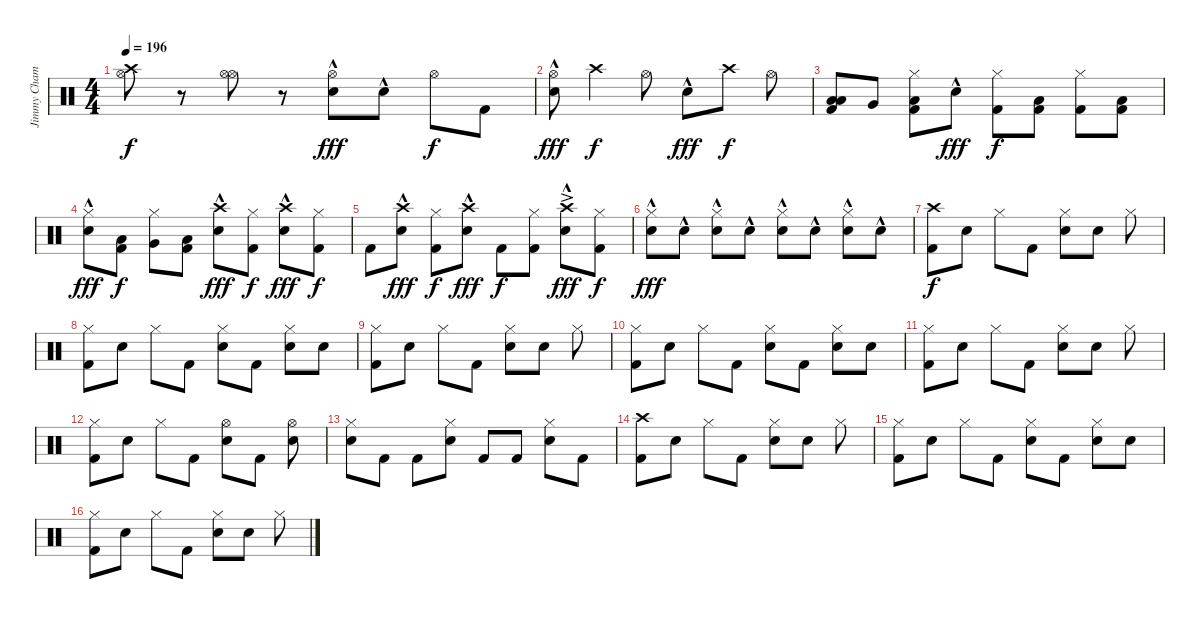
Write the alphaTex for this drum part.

\track ("Jimmy Chamberlin" "Jimmy Cham") {instrument percussion}
\staff {score}
\articulation defaults
\ts (4 4)
\tempo 196
\clef neutral
\ks c
("Crash high (hit)" "Hi-Hat (open)").8{dy f} r.8 ("Hi-Hat (open)" "Hi-Hat (open)").8 r.8 ("Hi-Hat (open)" "Electric Snare (hit)"{hac}).8{dy fff} "Electric Snare (hit)"{hac}.8 "Hi-Hat (open)".8{dy f} "Kick (hit) 2".8 |
("Hi-Hat (open)" "Electric Snare (hit)"{hac}).8{dy fff} "Crash high (hit)".4{dy f} "Hi-Hat (open)".8 "Electric Snare (hit)"{hac}.8{dy fff} "Crash high (hit)".8{dy f} "Hi-Hat (open)".8 |
("Low Tom (hit)" "Low Floor Tom (hit)" "Kick (hit) 2").8 "Very Low Tom (hit)".8 ("Hi-Hat (closed)" "Low Floor Tom (hit)" "Kick (hit) 2").8 "Electric Snare (hit)"{hac}.8{dy fff} ("Hi-Hat (closed)" "Kick (hit) 2").8{dy f} ("Low Floor Tom (hit)" "Kick (hit) 2").8 ("Hi-Hat (closed)" "Kick (hit) 2").8 ("Low Floor Tom (hit)" "Kick (hit) 2").8 |
("Hi-Hat (closed)" "Electric Snare (hit)"{hac}).8{dy fff} ("Low Tom (hit)" "Kick (hit) 2").8{dy f} ("Hi-Hat (closed)" "Very Low Tom (hit)").8 ("Low Floor Tom (hit)" "Kick (hit) 2").8 ("Crash high (hit)" "Electric Snare (hit)"{hac}).8{dy fff} ("Hi-Hat (closed)" "Kick (hit) 2").8{dy f} ("Crash high (hit)" "Electric Snare (hit)"{hac}).8{dy fff} ("Hi-Hat (closed)" "Kick (hit) 2").8{dy f} |
"Kick (hit) 2".8 ("Crash high (hit)" "Electric Snare (hit)"{hac}).8{dy fff} ("Hi-Hat (closed)" "Kick (hit) 2").8{dy f} ("Crash high (hit)" "Electric Snare (hit)"{hac}).8{dy fff} "Kick (hit) 2".8{dy f} ("Hi-Hat (closed)" "Kick (hit) 2").8 ("Crash high (hit)"{ac} "Electric Snare (hit)"{hac}).8{dy fff} ("Hi-Hat (closed)" "Kick (hit) 2").8{dy f} |
("Hi-Hat (closed)" "Electric Snare (hit)"{hac}).8{dy fff} "Electric Snare (hit)"{hac}.8 ("Hi-Hat (closed)" "Electric Snare (hit)"{hac}).8 "Electric Snare (hit)"{hac}.8 ("Hi-Hat (closed)" "Electric Snare (hit)"{hac}).8 "Electric Snare (hit)"{hac}.8 ("Hi-Hat (closed)" "Electric Snare (hit)"{hac}).8 "Electric Snare (hit)"{hac}.8 |
("Crash high (hit)" "Kick (hit) 2").8{dy f} "Electric Snare (hit)".8 "Hi-Hat (closed)".8 "Kick (hit) 2".8 ("Hi-Hat (closed)" "Electric Snare (hit)").8 "Electric Snare (hit)".8 "Hi-Hat (closed)".8 |
("Hi-Hat (closed)" "Kick (hit) 2").8 "Electric Snare (hit)".8 "Hi-Hat (closed)".8 "Kick (hit) 2".8 ("Hi-Hat (closed)" "Electric Snare (hit)").8 "Kick (hit) 2".8 ("Hi-Hat (closed)" "Electric Snare (hit)").8 "Electric Snare (hit)".8 |
("Hi-Hat (closed)" "Kick (hit) 2").8 "Electric Snare (hit)".8 "Hi-Hat (closed)".8 "Kick (hit) 2".8 ("Hi-Hat (closed)" "Electric Snare (hit)").8 "Electric Snare (hit)".8 "Hi-Hat (closed)".8 |
("Hi-Hat (closed)" "Kick (hit) 2").8 "Electric Snare (hit)".8 "Hi-Hat (closed)".8 "Kick (hit) 2".8 ("Hi-Hat (closed)" "Electric Snare (hit)").8 "Kick (hit) 2".8 ("Hi-Hat (closed)" "Electric Snare (hit)").8 "Electric Snare (hit)".8 |
("Hi-Hat (closed)" "Kick (hit) 2").8 "Electric Snare (hit)".8 "Hi-Hat (closed)".8 "Kick (hit) 2".8 ("Hi-Hat (closed)" "Electric Snare (hit)").8 "Electric Snare (hit)".8 "Hi-Hat (closed)".8 |
("Hi-Hat (closed)" "Kick (hit) 2").8 "Electric Snare (hit)".8 "Hi-Hat (closed)".8 "Kick (hit) 2".8 ("Hi-Hat (open)" "Electric Snare (hit)").8 "Kick (hit) 2".8 ("Hi-Hat (open)" "Electric Snare (hit)").8 |
("Hi-Hat (closed)" "Electric Snare (hit)").8 "Kick (hit) 2".8 "Kick (hit) 2".8 ("Hi-Hat (closed)" "Electric Snare (hit)").8 "Kick (hit) 2".8 "Kick (hit) 2".8 ("Hi-Hat (closed)" "Electric Snare (hit)").8 "Kick (hit) 2".8 |
("Crash high (hit)" "Kick (hit) 2").8 "Electric Snare (hit)".8 "Hi-Hat (closed)".8 "Kick (hit) 2".8 ("Hi-Hat (closed)" "Electric Snare (hit)").8 "Electric Snare (hit)".8 "Hi-Hat (closed)".8 |
("Hi-Hat (closed)" "Kick (hit) 2").8 "Electric Snare (hit)".8 "Hi-Hat (closed)".8 "Kick (hit) 2".8 ("Hi-Hat (closed)" "Electric Snare (hit)").8 "Kick (hit) 2".8 ("Hi-Hat (closed)" "Electric Snare (hit)").8 "Electric Snare (hit)".8 |
("Hi-Hat (closed)" "Kick (hit) 2").8 "Electric Snare (hit)".8 "Hi-Hat (closed)".8 "Kick (hit) 2".8 ("Hi-Hat (closed)" "Electric Snare (hit)").8 "Electric Snare (hit)".8 "Hi-Hat (closed)".8
